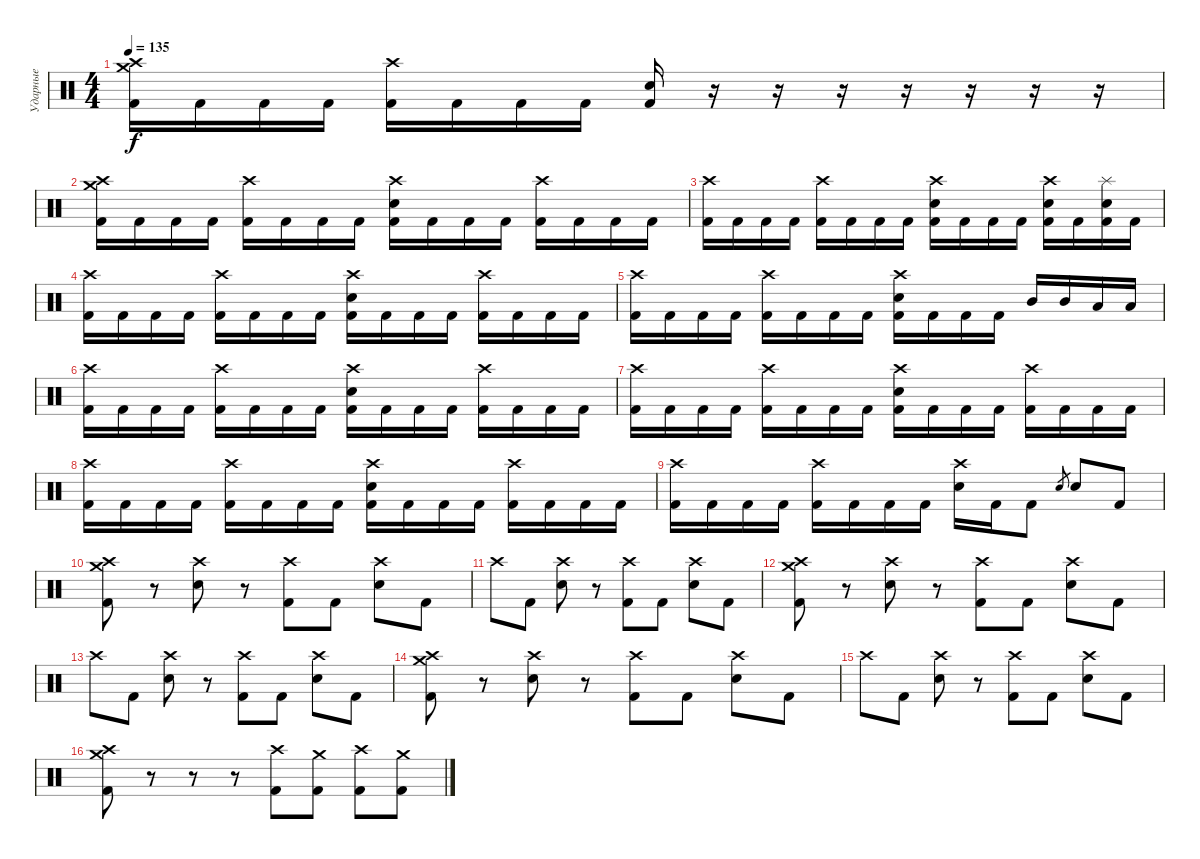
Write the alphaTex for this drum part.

\track ("Ударные" "Ударные") {instrument percussion}
\staff {score}
\articulation defaults
\ts (4 4)
\tempo 135
\clef neutral
\ks c
("Crash high (hit)" "Crash medium (hit)" "Kick (hit) 2").16{dy f} "Kick (hit) 2".16 "Kick (hit) 2".16 "Kick (hit) 2".16 ("Crash high (hit)" "Kick (hit) 2").16 "Kick (hit) 2".16 "Kick (hit) 2".16 "Kick (hit) 2".16 ("Electric Snare (hit)" "Kick (hit) 2").16 r.16 r.16 r.16 r.16 r.16 r.16 r.16 |
("Crash high (hit)" "Crash medium (hit)" "Kick (hit) 2").16 "Kick (hit) 2".16 "Kick (hit) 2".16 "Kick (hit) 2".16 ("Crash high (hit)" "Kick (hit) 2").16 "Kick (hit) 2".16 "Kick (hit) 2".16 "Kick (hit) 2".16 ("Crash high (hit)" "Electric Snare (hit)" "Kick (hit) 2").16 "Kick (hit) 2".16 "Kick (hit) 2".16 "Kick (hit) 2".16 ("Crash high (hit)" "Kick (hit) 2").16 "Kick (hit) 2".16 "Kick (hit) 2".16 "Kick (hit) 2".16 |
("Crash high (hit)" "Kick (hit) 2").16 "Kick (hit) 2".16 "Kick (hit) 2".16 "Kick (hit) 2".16 ("Crash high (hit)" "Kick (hit) 2").16 "Kick (hit) 2".16 "Kick (hit) 2".16 "Kick (hit) 2".16 ("Crash high (hit)" "Electric Snare (hit)" "Kick (hit) 2").16 "Kick (hit) 2".16 "Kick (hit) 2".16 "Kick (hit) 2".16 ("Crash high (hit)" "Electric Snare (hit)" "Kick (hit) 2").16 "Kick (hit) 2".16 ("Splash (hit)" "Electric Snare (hit)" "Kick (hit) 2").16 "Kick (hit) 2".16 |
("Crash high (hit)" "Kick (hit) 2").16 "Kick (hit) 2".16 "Kick (hit) 2".16 "Kick (hit) 2".16 ("Crash high (hit)" "Kick (hit) 2").16 "Kick (hit) 2".16 "Kick (hit) 2".16 "Kick (hit) 2".16 ("Crash high (hit)" "Electric Snare (hit)" "Kick (hit) 2").16 "Kick (hit) 2".16 "Kick (hit) 2".16 "Kick (hit) 2".16 ("Crash high (hit)" "Kick (hit) 2").16 "Kick (hit) 2".16 "Kick (hit) 2".16 "Kick (hit) 2".16 |
("Crash high (hit)" "Kick (hit) 2").16 "Kick (hit) 2".16 "Kick (hit) 2".16 "Kick (hit) 2".16 ("Crash high (hit)" "Kick (hit) 2").16 "Kick (hit) 2".16 "Kick (hit) 2".16 "Kick (hit) 2".16 ("Crash high (hit)" "Electric Snare (hit)" "Kick (hit) 2").16 "Kick (hit) 2".16 "Kick (hit) 2".16 "Kick (hit) 2".16 "Mid Tom (hit)".16 "Mid Tom (hit)".16 "Low Tom (hit)".16 "Low Tom (hit)".16 |
("Crash high (hit)" "Kick (hit) 2").16 "Kick (hit) 2".16 "Kick (hit) 2".16 "Kick (hit) 2".16 ("Crash high (hit)" "Kick (hit) 2").16 "Kick (hit) 2".16 "Kick (hit) 2".16 "Kick (hit) 2".16 ("Crash high (hit)" "Electric Snare (hit)" "Kick (hit) 2").16 "Kick (hit) 2".16 "Kick (hit) 2".16 "Kick (hit) 2".16 ("Crash high (hit)" "Kick (hit) 2").16 "Kick (hit) 2".16 "Kick (hit) 2".16 "Kick (hit) 2".16 |
("Crash high (hit)" "Kick (hit) 2").16 "Kick (hit) 2".16 "Kick (hit) 2".16 "Kick (hit) 2".16 ("Crash high (hit)" "Kick (hit) 2").16 "Kick (hit) 2".16 "Kick (hit) 2".16 "Kick (hit) 2".16 ("Crash high (hit)" "Electric Snare (hit)" "Kick (hit) 2").16 "Kick (hit) 2".16 "Kick (hit) 2".16 "Kick (hit) 2".16 ("Crash high (hit)" "Kick (hit) 2").16 "Kick (hit) 2".16 "Kick (hit) 2".16 "Kick (hit) 2".16 |
("Crash high (hit)" "Kick (hit) 2").16 "Kick (hit) 2".16 "Kick (hit) 2".16 "Kick (hit) 2".16 ("Crash high (hit)" "Kick (hit) 2").16 "Kick (hit) 2".16 "Kick (hit) 2".16 "Kick (hit) 2".16 ("Crash high (hit)" "Electric Snare (hit)" "Kick (hit) 2").16 "Kick (hit) 2".16 "Kick (hit) 2".16 "Kick (hit) 2".16 ("Crash high (hit)" "Kick (hit) 2").16 "Kick (hit) 2".16 "Kick (hit) 2".16 "Kick (hit) 2".16 |
("Crash high (hit)" "Kick (hit) 2").16 "Kick (hit) 2".16 "Kick (hit) 2".16 "Kick (hit) 2".16 ("Crash high (hit)" "Kick (hit) 2").16 "Kick (hit) 2".16 "Kick (hit) 2".16 "Kick (hit) 2".16 ("Crash high (hit)" "Electric Snare (hit)").16 "Kick (hit) 2".16 "Kick (hit) 2".8 "Electric Snare (hit)".8{gr} "Electric Snare (hit)".8 "Kick (hit) 2".8 |
("Crash high (hit)" "Crash medium (hit)" "Kick (hit) 2").8 r.8 ("Crash high (hit)" "Electric Snare (hit)").8 r.8 ("Crash high (hit)" "Kick (hit) 2").8 "Kick (hit) 2".8 ("Crash high (hit)" "Electric Snare (hit)").8 "Kick (hit) 2".8 |
"Crash high (hit)".8 "Kick (hit) 2".8 ("Crash high (hit)" "Electric Snare (hit)").8 r.8 ("Crash high (hit)" "Kick (hit) 2").8 "Kick (hit) 2".8 ("Crash high (hit)" "Electric Snare (hit)").8 "Kick (hit) 2".8 |
("Crash high (hit)" "Crash medium (hit)" "Kick (hit) 2").8 r.8 ("Crash high (hit)" "Electric Snare (hit)").8 r.8 ("Crash high (hit)" "Kick (hit) 2").8 "Kick (hit) 2".8 ("Crash high (hit)" "Electric Snare (hit)").8 "Kick (hit) 2".8 |
"Crash high (hit)".8 "Kick (hit) 2".8 ("Crash high (hit)" "Electric Snare (hit)").8 r.8 ("Crash high (hit)" "Kick (hit) 2").8 "Kick (hit) 2".8 ("Crash high (hit)" "Electric Snare (hit)").8 "Kick (hit) 2".8 |
("Crash high (hit)" "Crash medium (hit)" "Kick (hit) 2").8 r.8 ("Crash high (hit)" "Electric Snare (hit)").8 r.8 ("Crash high (hit)" "Kick (hit) 2").8 "Kick (hit) 2".8 ("Crash high (hit)" "Electric Snare (hit)").8 "Kick (hit) 2".8 |
"Crash high (hit)".8 "Kick (hit) 2".8 ("Crash high (hit)" "Electric Snare (hit)").8 r.8 ("Crash high (hit)" "Kick (hit) 2").8 "Kick (hit) 2".8 ("Crash high (hit)" "Electric Snare (hit)").8 "Kick (hit) 2".8 |
("Crash high (hit)" "Crash medium (hit)" "Kick (hit) 2").8 r.8 r.8 r.8 ("Crash high (hit)" "Kick (hit) 2").8 ("Crash medium (hit)" "Kick (hit) 2").8 ("Crash high (hit)" "Kick (hit) 2").8 ("Crash medium (hit)" "Kick (hit) 2").8
